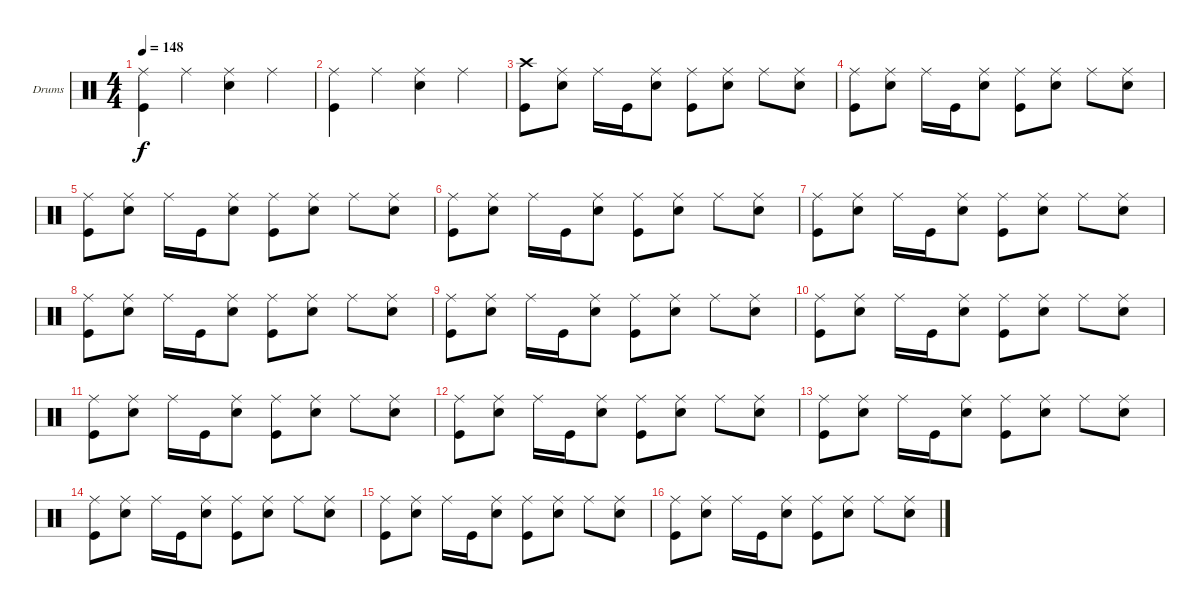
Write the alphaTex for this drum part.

\bracketExtendMode groupsimilarinstruments
\firstSystemTrackNameOrientation horizontal
\otherSystemsTrackNameOrientation horizontal
\track ("Drumkit" "Drums") {instrument percussion}
\staff {score}
\articulation defaults
\ts (4 4)
\tempo 148
\clef neutral
\ks c
("Ride (middle)" "Kick (hit)").4{dy f} "Ride (middle)".4 ("Ride (middle)" "Snare (hit) 2").4 "Ride (middle)".4 |
("Ride (middle)" "Kick (hit)").4 "Ride (middle)".4 ("Ride (middle)" "Snare (hit) 2").4 "Ride (middle)".4 |
("Crash high (hit)" "Kick (hit)").8 ("Ride (middle)" "Snare (hit) 2").8 "Ride (middle)".16 "Kick (hit)".16 ("Ride (middle)" "Snare (hit) 2").8 ("Ride (middle)" "Kick (hit)").8 ("Ride (middle)" "Snare (hit) 2").8 "Ride (middle)".8 ("Ride (middle)" "Snare (hit) 2").8 |
("Ride (middle)" "Kick (hit)").8 ("Ride (middle)" "Snare (hit) 2").8 "Ride (middle)".16 "Kick (hit)".16 ("Ride (middle)" "Snare (hit) 2").8 ("Ride (middle)" "Kick (hit)").8 ("Ride (middle)" "Snare (hit) 2").8 "Ride (middle)".8 ("Ride (middle)" "Snare (hit) 2").8 |
("Ride (middle)" "Kick (hit)").8 ("Ride (middle)" "Snare (hit) 2").8 "Ride (middle)".16 "Kick (hit)".16 ("Ride (middle)" "Snare (hit) 2").8 ("Ride (middle)" "Kick (hit)").8 ("Ride (middle)" "Snare (hit) 2").8 "Ride (middle)".8 ("Ride (middle)" "Snare (hit) 2").8 |
("Ride (middle)" "Kick (hit)").8 ("Ride (middle)" "Snare (hit) 2").8 "Ride (middle)".16 "Kick (hit)".16 ("Ride (middle)" "Snare (hit) 2").8 ("Ride (middle)" "Kick (hit)").8 ("Ride (middle)" "Snare (hit) 2").8 "Ride (middle)".8 ("Ride (middle)" "Snare (hit) 2").8 |
("Ride (middle)" "Kick (hit)").8 ("Ride (middle)" "Snare (hit) 2").8 "Ride (middle)".16 "Kick (hit)".16 ("Ride (middle)" "Snare (hit) 2").8 ("Ride (middle)" "Kick (hit)").8 ("Ride (middle)" "Snare (hit) 2").8 "Ride (middle)".8 ("Ride (middle)" "Snare (hit) 2").8 |
("Ride (middle)" "Kick (hit)").8 ("Ride (middle)" "Snare (hit) 2").8 "Ride (middle)".16 "Kick (hit)".16 ("Ride (middle)" "Snare (hit) 2").8 ("Ride (middle)" "Kick (hit)").8 ("Ride (middle)" "Snare (hit) 2").8 "Ride (middle)".8 ("Ride (middle)" "Snare (hit) 2").8 |
("Ride (middle)" "Kick (hit)").8 ("Ride (middle)" "Snare (hit) 2").8 "Ride (middle)".16 "Kick (hit)".16 ("Ride (middle)" "Snare (hit) 2").8 ("Ride (middle)" "Kick (hit)").8 ("Ride (middle)" "Snare (hit) 2").8 "Ride (middle)".8 ("Ride (middle)" "Snare (hit) 2").8 |
("Ride (middle)" "Kick (hit)").8 ("Ride (middle)" "Snare (hit) 2").8 "Ride (middle)".16 "Kick (hit)".16 ("Ride (middle)" "Snare (hit) 2").8 ("Ride (middle)" "Kick (hit)").8 ("Ride (middle)" "Snare (hit) 2").8 "Ride (middle)".8 ("Ride (middle)" "Snare (hit) 2").8 |
("Ride (middle)" "Kick (hit)").8 ("Ride (middle)" "Snare (hit) 2").8 "Ride (middle)".16 "Kick (hit)".16 ("Ride (middle)" "Snare (hit) 2").8 ("Ride (middle)" "Kick (hit)").8 ("Ride (middle)" "Snare (hit) 2").8 "Ride (middle)".8 ("Ride (middle)" "Snare (hit) 2").8 |
("Ride (middle)" "Kick (hit)").8 ("Ride (middle)" "Snare (hit) 2").8 "Ride (middle)".16 "Kick (hit)".16 ("Ride (middle)" "Snare (hit) 2").8 ("Ride (middle)" "Kick (hit)").8 ("Ride (middle)" "Snare (hit) 2").8 "Ride (middle)".8 ("Ride (middle)" "Snare (hit) 2").8 |
("Ride (middle)" "Kick (hit)").8 ("Ride (middle)" "Snare (hit) 2").8 "Ride (middle)".16 "Kick (hit)".16 ("Ride (middle)" "Snare (hit) 2").8 ("Ride (middle)" "Kick (hit)").8 ("Ride (middle)" "Snare (hit) 2").8 "Ride (middle)".8 ("Ride (middle)" "Snare (hit) 2").8 |
("Ride (middle)" "Kick (hit)").8 ("Ride (middle)" "Snare (hit) 2").8 "Ride (middle)".16 "Kick (hit)".16 ("Ride (middle)" "Snare (hit) 2").8 ("Ride (middle)" "Kick (hit)").8 ("Ride (middle)" "Snare (hit) 2").8 "Ride (middle)".8 ("Ride (middle)" "Snare (hit) 2").8 |
("Ride (middle)" "Kick (hit)").8 ("Ride (middle)" "Snare (hit) 2").8 "Ride (middle)".16 "Kick (hit)".16 ("Ride (middle)" "Snare (hit) 2").8 ("Ride (middle)" "Kick (hit)").8 ("Ride (middle)" "Snare (hit) 2").8 "Ride (middle)".8 ("Ride (middle)" "Snare (hit) 2").8 |
("Ride (middle)" "Kick (hit)").8 ("Ride (middle)" "Snare (hit) 2").8 "Ride (middle)".16 "Kick (hit)".16 ("Ride (middle)" "Snare (hit) 2").8 ("Ride (middle)" "Kick (hit)").8 ("Ride (middle)" "Snare (hit) 2").8 "Ride (middle)".8 ("Ride (middle)" "Snare (hit) 2").8
